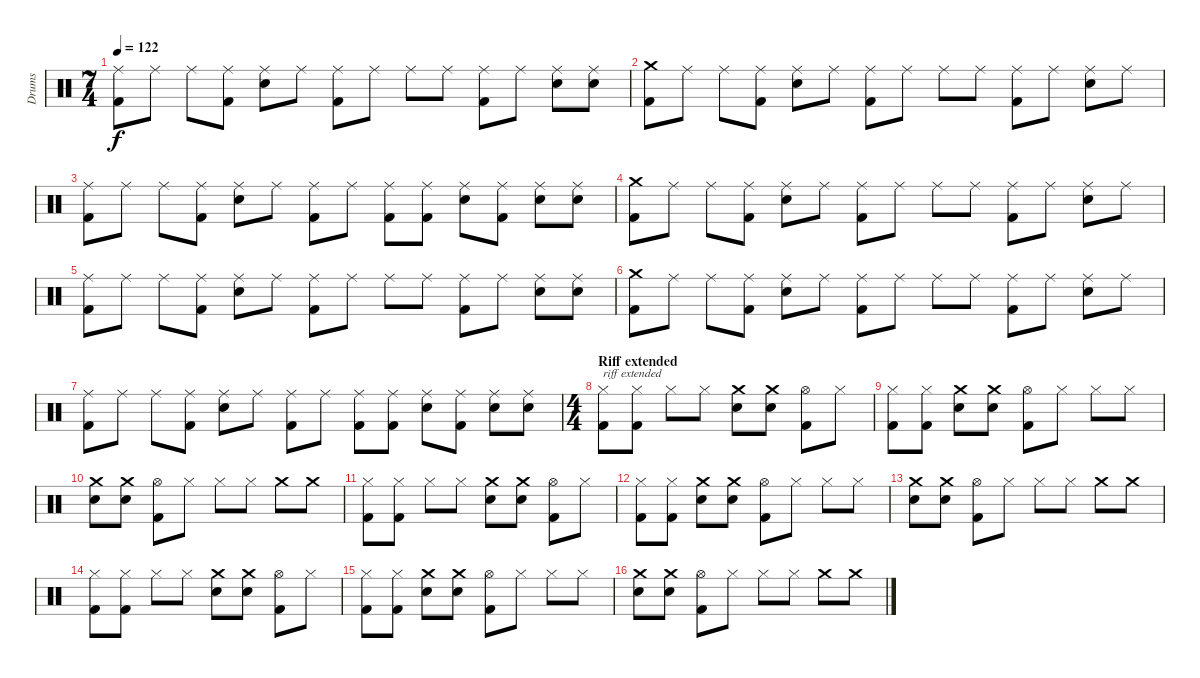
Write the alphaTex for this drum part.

\track ("Drums" "Drums") {instrument percussion}
\staff {score}
\articulation defaults
\ts (7 4)
\tempo 122
\clef neutral
\ks c
("Ride (middle)" "Kick (hit) 2").8{dy f} "Ride (middle)".8 "Ride (middle)".8 ("Ride (middle)" "Kick (hit) 2").8 ("Ride (middle)" "Snare (hit) 2").8 "Ride (middle)".8 ("Ride (middle)" "Kick (hit) 2").8 "Ride (middle)".8 "Ride (middle)".8 "Ride (middle)".8 ("Ride (middle)" "Kick (hit) 2").8 "Ride (middle)".8 ("Ride (middle)" "Snare (hit) 2").8 ("Ride (middle)" "Snare (hit) 2").8 |
("Crash medium (hit)" "Kick (hit) 2").8 "Ride (middle)".8 "Ride (middle)".8 ("Ride (middle)" "Kick (hit) 2").8 ("Ride (middle)" "Snare (hit) 2").8 "Ride (middle)".8 ("Ride (middle)" "Kick (hit) 2").8 "Ride (middle)".8 "Ride (middle)".8 "Ride (middle)".8 ("Ride (middle)" "Kick (hit) 2").8 "Ride (middle)".8 ("Ride (middle)" "Snare (hit) 2").8 "Ride (middle)".8 |
("Ride (middle)" "Kick (hit) 2").8 "Ride (middle)".8 "Ride (middle)".8 ("Ride (middle)" "Kick (hit) 2").8 ("Ride (middle)" "Snare (hit) 2").8 "Ride (middle)".8 ("Ride (middle)" "Kick (hit) 2").8 "Ride (middle)".8 ("Ride (middle)" "Kick (hit) 2").8 ("Ride (middle)" "Kick (hit) 2").8 ("Ride (middle)" "Snare (hit) 2").8 ("Ride (middle)" "Kick (hit) 2").8 ("Ride (middle)" "Snare (hit) 2").8 ("Ride (middle)" "Snare (hit) 2").8 |
("Crash medium (hit)" "Kick (hit) 2").8 "Ride (middle)".8 "Ride (middle)".8 ("Ride (middle)" "Kick (hit) 2").8 ("Ride (middle)" "Snare (hit) 2").8 "Ride (middle)".8 ("Ride (middle)" "Kick (hit) 2").8 "Ride (middle)".8 "Ride (middle)".8 "Ride (middle)".8 ("Ride (middle)" "Kick (hit) 2").8 "Ride (middle)".8 ("Ride (middle)" "Snare (hit) 2").8 "Ride (middle)".8 |
("Ride (middle)" "Kick (hit) 2").8 "Ride (middle)".8 "Ride (middle)".8 ("Ride (middle)" "Kick (hit) 2").8 ("Ride (middle)" "Snare (hit) 2").8 "Ride (middle)".8 ("Ride (middle)" "Kick (hit) 2").8 "Ride (middle)".8 "Ride (middle)".8 "Ride (middle)".8 ("Ride (middle)" "Kick (hit) 2").8 "Ride (middle)".8 ("Ride (middle)" "Snare (hit) 2").8 ("Ride (middle)" "Snare (hit) 2").8 |
("Crash medium (hit)" "Kick (hit) 2").8 "Ride (middle)".8 "Ride (middle)".8 ("Ride (middle)" "Kick (hit) 2").8 ("Ride (middle)" "Snare (hit) 2").8 "Ride (middle)".8 ("Ride (middle)" "Kick (hit) 2").8 "Ride (middle)".8 "Ride (middle)".8 "Ride (middle)".8 ("Ride (middle)" "Kick (hit) 2").8 "Ride (middle)".8 ("Ride (middle)" "Snare (hit) 2").8 "Ride (middle)".8 |
("Ride (middle)" "Kick (hit) 2").8 "Ride (middle)".8 "Ride (middle)".8 ("Ride (middle)" "Kick (hit) 2").8 ("Ride (middle)" "Snare (hit) 2").8 "Ride (middle)".8 ("Ride (middle)" "Kick (hit) 2").8 "Ride (middle)".8 ("Ride (middle)" "Kick (hit) 2").8 ("Ride (middle)" "Kick (hit) 2").8 ("Ride (middle)" "Snare (hit) 2").8 ("Ride (middle)" "Kick (hit) 2").8 ("Ride (middle)" "Snare (hit) 2").8 ("Ride (middle)" "Snare (hit) 2").8 |
\ts (4 4)
\section ("" "Riff extended")
("Hi-Hat (closed)" "Kick (hit) 2").8{txt "riff extended"} ("Hi-Hat (closed)" "Kick (hit) 2").8 "Hi-Hat (closed)".8 "Hi-Hat (closed)".8 ("Crash medium (hit)" "Snare (hit) 2").8 ("Crash medium (hit)" "Snare (hit) 2").8 ("Hi-Hat (open)" "Kick (hit) 2").8 "Hi-Hat (closed)".8 |
("Hi-Hat (closed)" "Kick (hit) 2").8 ("Hi-Hat (closed)" "Kick (hit) 2").8 ("Crash medium (hit)" "Snare (hit) 2").8 ("Crash medium (hit)" "Snare (hit) 2").8 ("Hi-Hat (open)" "Kick (hit) 2").8 "Hi-Hat (closed)".8 "Hi-Hat (closed)".8 "Hi-Hat (closed)".8 |
("Crash medium (hit)" "Snare (hit) 2").8 ("Crash medium (hit)" "Snare (hit) 2").8 ("Hi-Hat (open)" "Kick (hit) 2").8 "Hi-Hat (closed)".8 "Hi-Hat (closed)".8 "Hi-Hat (closed)".8 "Crash medium (hit)".8 "Crash medium (hit)".8 |
("Hi-Hat (closed)" "Kick (hit) 2").8 ("Hi-Hat (closed)" "Kick (hit) 2").8 "Hi-Hat (closed)".8 "Hi-Hat (closed)".8 ("Crash medium (hit)" "Snare (hit) 2").8 ("Crash medium (hit)" "Snare (hit) 2").8 ("Hi-Hat (open)" "Kick (hit) 2").8 "Hi-Hat (closed)".8 |
("Hi-Hat (closed)" "Kick (hit) 2").8 ("Hi-Hat (closed)" "Kick (hit) 2").8 ("Crash medium (hit)" "Snare (hit) 2").8 ("Crash medium (hit)" "Snare (hit) 2").8 ("Hi-Hat (open)" "Kick (hit) 2").8 "Hi-Hat (closed)".8 "Hi-Hat (closed)".8 "Hi-Hat (closed)".8 |
("Crash medium (hit)" "Snare (hit) 2").8 ("Crash medium (hit)" "Snare (hit) 2").8 ("Hi-Hat (open)" "Kick (hit) 2").8 "Hi-Hat (closed)".8 "Hi-Hat (closed)".8 "Hi-Hat (closed)".8 "Crash medium (hit)".8 "Crash medium (hit)".8 |
("Hi-Hat (closed)" "Kick (hit) 2").8 ("Hi-Hat (closed)" "Kick (hit) 2").8 "Hi-Hat (closed)".8 "Hi-Hat (closed)".8 ("Crash medium (hit)" "Snare (hit) 2").8 ("Crash medium (hit)" "Snare (hit) 2").8 ("Hi-Hat (open)" "Kick (hit) 2").8 "Hi-Hat (closed)".8 |
("Hi-Hat (closed)" "Kick (hit) 2").8 ("Hi-Hat (closed)" "Kick (hit) 2").8 ("Crash medium (hit)" "Snare (hit) 2").8 ("Crash medium (hit)" "Snare (hit) 2").8 ("Hi-Hat (open)" "Kick (hit) 2").8 "Hi-Hat (closed)".8 "Hi-Hat (closed)".8 "Hi-Hat (closed)".8 |
("Crash medium (hit)" "Snare (hit) 2").8 ("Crash medium (hit)" "Snare (hit) 2").8 ("Hi-Hat (open)" "Kick (hit) 2").8 "Hi-Hat (closed)".8 "Hi-Hat (closed)".8 "Hi-Hat (closed)".8 "Crash medium (hit)".8 "Crash medium (hit)".8
